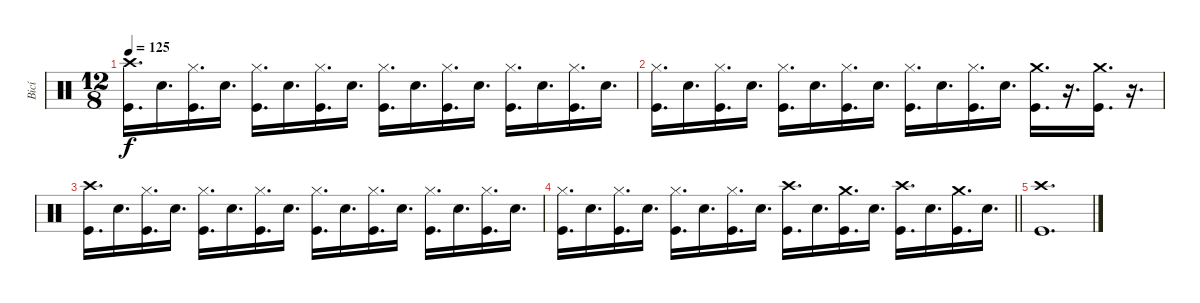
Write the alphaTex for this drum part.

\track ("Bicí" "Bicí") {instrument percussion}
\staff {score}
\articulation defaults
\ts (12 8)
\tempo 125
\clef neutral
\ks c
("Crash high (hit)" "Kick (hit)").16{d dy f} "Electric Snare (hit)".16{d} ("Hi-Hat (closed)" "Kick (hit)").16{d} "Electric Snare (hit)".16{d} ("Hi-Hat (closed)" "Kick (hit)").16{d} "Electric Snare (hit)".16{d} ("Hi-Hat (closed)" "Kick (hit)").16{d} "Electric Snare (hit)".16{d} ("Hi-Hat (closed)" "Kick (hit)").16{d} "Electric Snare (hit)".16{d} ("Hi-Hat (closed)" "Kick (hit)").16{d} "Electric Snare (hit)".16{d} ("Hi-Hat (closed)" "Kick (hit)").16{d} "Electric Snare (hit)".16{d} ("Hi-Hat (closed)" "Kick (hit)").16{d} "Electric Snare (hit)".16{d} |
("Hi-Hat (closed)" "Kick (hit)").16{d} "Electric Snare (hit)".16{d} ("Hi-Hat (closed)" "Kick (hit)").16{d} "Electric Snare (hit)".16{d} ("Hi-Hat (closed)" "Kick (hit)").16{d} "Electric Snare (hit)".16{d} ("Hi-Hat (closed)" "Kick (hit)").16{d} "Electric Snare (hit)".16{d} ("Hi-Hat (closed)" "Kick (hit)").16{d} "Electric Snare (hit)".16{d} ("Hi-Hat (closed)" "Kick (hit)").16{d} "Electric Snare (hit)".16{d} ("Crash medium (hit)" "Kick (hit)").16{d} r.16{d} ("Crash medium (hit)" "Kick (hit)").16{d} r.16{d} |
("Crash high (hit)" "Kick (hit)").16{d} "Electric Snare (hit)".16{d} ("Hi-Hat (closed)" "Kick (hit)").16{d} "Electric Snare (hit)".16{d} ("Hi-Hat (closed)" "Kick (hit)").16{d} "Electric Snare (hit)".16{d} ("Hi-Hat (closed)" "Kick (hit)").16{d} "Electric Snare (hit)".16{d} ("Hi-Hat (closed)" "Kick (hit)").16{d} "Electric Snare (hit)".16{d} ("Hi-Hat (closed)" "Kick (hit)").16{d} "Electric Snare (hit)".16{d} ("Hi-Hat (closed)" "Kick (hit)").16{d} "Electric Snare (hit)".16{d} ("Hi-Hat (closed)" "Kick (hit)").16{d} "Electric Snare (hit)".16{d} |
\barLineRight lightlight
("Hi-Hat (closed)" "Kick (hit)").16{d} "Electric Snare (hit)".16{d} ("Hi-Hat (closed)" "Kick (hit)").16{d} "Electric Snare (hit)".16{d} ("Hi-Hat (closed)" "Kick (hit)").16{d} "Electric Snare (hit)".16{d} ("Hi-Hat (closed)" "Kick (hit)").16{d} "Electric Snare (hit)".16{d} ("Crash high (hit)" "Kick (hit)").16{d} "Electric Snare (hit)".16{d} ("Crash medium (hit)" "Kick (hit)").16{d} "Electric Snare (hit)".16{d} ("Crash high (hit)" "Kick (hit)").16{d} "Electric Snare (hit)".16{d} ("Crash medium (hit)" "Kick (hit)").16{d} "Electric Snare (hit)".16{d} |
("Crash high (hit)" "Kick (hit)").1{d}
